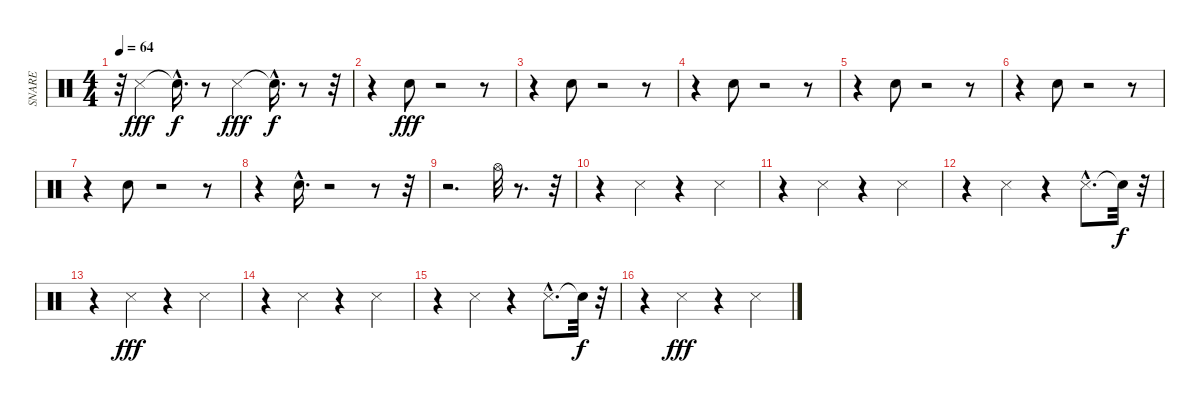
\track ("SNARE" "SNARE") {instrument percussion}
\staff {score}
\articulation defaults
\ts (4 4)
\tempo 64
\clef neutral
\ks c
r.32{dy fff} "Snare (side stick) 3".4 "Snare (hit)"{hac t}.16{d dy f} r.8 "Snare (side stick) 3".4{dy fff} "Snare (hit)"{hac t}.16{d dy f} r.8 r.32 |
r.4 "Snare (hit) 2".8{dy fff} r.2 r.8 |
r.4 "Snare (hit) 2".8 r.2 r.8 |
r.4 "Snare (hit) 2".8 r.2 r.8 |
r.4 "Snare (hit) 2".8 r.2 r.8 |
r.4 "Snare (hit) 2".8 r.2 r.8 |
r.4 "Snare (hit) 2".8 r.2 r.8 |
r.4 "Snare (hit) 2"{hac}.16{d} r.2 r.8 r.32 |
r.2{d} "Hi-Hat (open)".32 r.8{d} r.32 |
r.4 "Snare (side stick) 3".4 r.4 "Snare (side stick) 3".4 |
r.4 "Snare (side stick) 3".4 r.4 "Snare (side stick) 3".4 |
r.4 "Snare (side stick) 3".4 r.4 "Snare (side stick) 3"{hac}.8{d} "Snare (hit)"{t}.32{dy f} r.32 |
r.4 "Snare (side stick) 3".4{dy fff} r.4 "Snare (side stick) 3".4 |
r.4 "Snare (side stick) 3".4 r.4 "Snare (side stick) 3".4 |
r.4 "Snare (side stick) 3".4 r.4 "Snare (side stick) 3"{hac}.8{d} "Snare (hit)"{t}.32{dy f} r.32 |
r.4 "Snare (side stick) 3".4{dy fff} r.4 "Snare (side stick) 3".4
